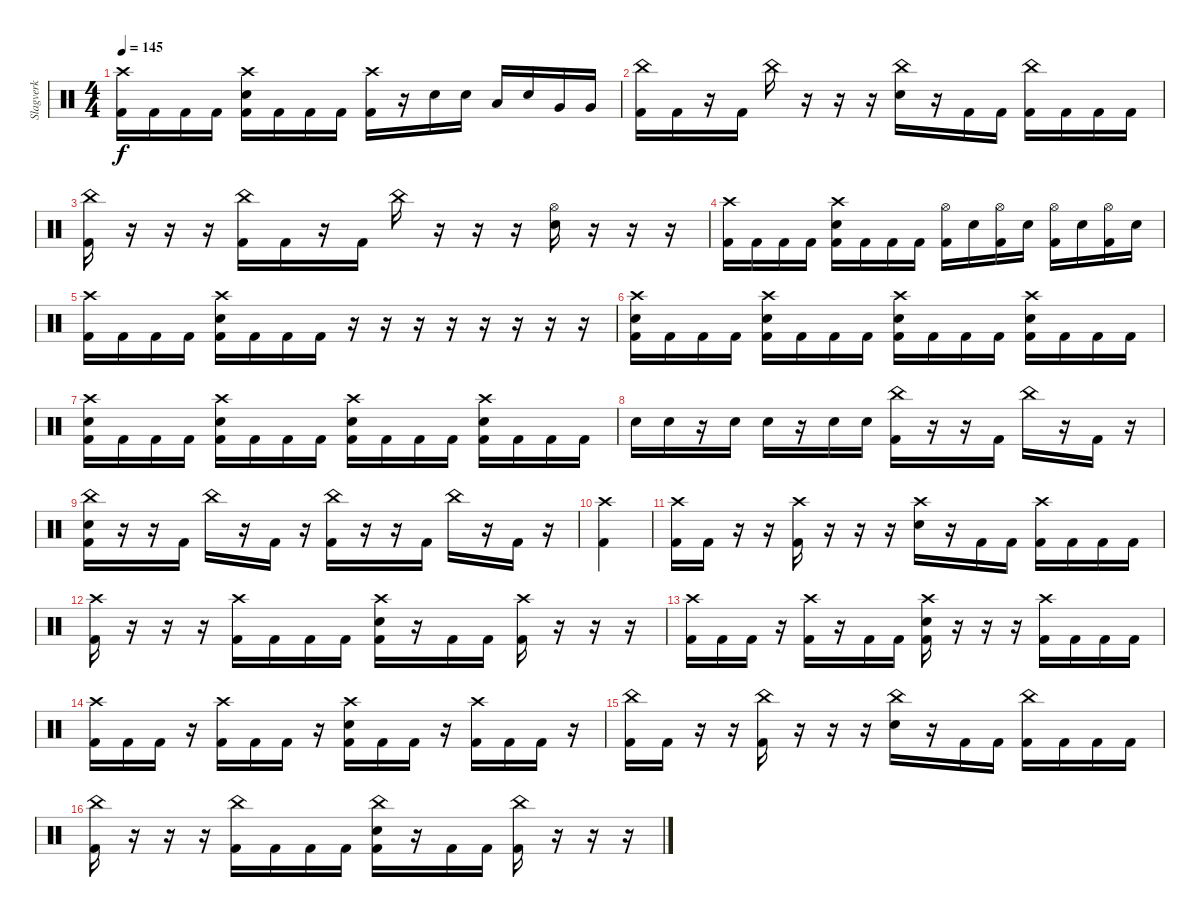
\track ("Slagverk" "Slagverk") {instrument percussion}
\staff {score}
\articulation defaults
\ts (4 4)
\tempo 145
\clef neutral
\ks c
("Crash high (hit)" "Kick (hit) 2").16{dy f} "Kick (hit) 2".16 "Kick (hit) 2".16 "Kick (hit) 2".16 ("Crash high (hit)" "Kick (hit) 2" "Electric Snare (hit)").16 "Kick (hit) 2".16 "Kick (hit) 2".16 "Kick (hit) 2".16 ("Crash high (hit)" "Kick (hit) 2").16 r.16 "Electric Snare (hit)".16 "Electric Snare (hit)".16 "Low Tom (hit)".16 "Electric Snare (hit)".16 "Very Low Tom (hit)".16 "Very Low Tom (hit)".16 |
("China (hit)" "Kick (hit) 2").16 "Kick (hit) 2".16 r.16 "Kick (hit) 2".16 "China (hit)".16 r.16 r.16 r.16 ("China (hit)" "Electric Snare (hit)").16 r.16 "Kick (hit) 2".16 "Kick (hit) 2".16 ("China (hit)" "Kick (hit) 2").16 "Kick (hit) 2".16 "Kick (hit) 2".16 "Kick (hit) 2".16 |
("China (hit)" "Kick (hit) 2").16 r.16 r.16 r.16 ("China (hit)" "Kick (hit) 2").16 "Kick (hit) 2".16 r.16 "Kick (hit) 2".16 "China (hit)".16 r.16 r.16 r.16 ("Hi-Hat (open)" "Electric Snare (hit)").16 r.16 r.16 r.16 |
("Kick (hit) 2" "Crash high (hit)").16 "Kick (hit) 2".16 "Kick (hit) 2".16 "Kick (hit) 2".16 ("Electric Snare (hit)" "Kick (hit) 2" "Crash high (hit)").16 "Kick (hit) 2".16 "Kick (hit) 2".16 "Kick (hit) 2".16 ("Kick (hit) 2" "Hi-Hat (open)").16 "Electric Snare (hit)".16 ("Kick (hit) 2" "Hi-Hat (open)").16 "Electric Snare (hit)".16 ("Kick (hit) 2" "Hi-Hat (open)").16 "Electric Snare (hit)".16 ("Kick (hit) 2" "Hi-Hat (open)").16 "Electric Snare (hit)".16 |
("Crash high (hit)" "Kick (hit) 2").16 "Kick (hit) 2".16 "Kick (hit) 2".16 "Kick (hit) 2".16 ("Crash high (hit)" "Electric Snare (hit)" "Kick (hit) 2").16 "Kick (hit) 2".16 "Kick (hit) 2".16 "Kick (hit) 2".16 r.16 r.16 r.16 r.16 r.16 r.16 r.16 r.16 |
("Crash high (hit)" "Electric Snare (hit)" "Kick (hit) 2").16 "Kick (hit) 2".16 "Kick (hit) 2".16 "Kick (hit) 2".16 ("Crash high (hit)" "Electric Snare (hit)" "Kick (hit) 2").16 "Kick (hit) 2".16 "Kick (hit) 2".16 "Kick (hit) 2".16 ("Crash high (hit)" "Electric Snare (hit)" "Kick (hit) 2").16 "Kick (hit) 2".16 "Kick (hit) 2".16 "Kick (hit) 2".16 ("Crash high (hit)" "Electric Snare (hit)" "Kick (hit) 2").16 "Kick (hit) 2".16 "Kick (hit) 2".16 "Kick (hit) 2".16 |
("Crash high (hit)" "Electric Snare (hit)" "Kick (hit) 2").16 "Kick (hit) 2".16 "Kick (hit) 2".16 "Kick (hit) 2".16 ("Crash high (hit)" "Electric Snare (hit)" "Kick (hit) 2").16 "Kick (hit) 2".16 "Kick (hit) 2".16 "Kick (hit) 2".16 ("Crash high (hit)" "Electric Snare (hit)" "Kick (hit) 2").16 "Kick (hit) 2".16 "Kick (hit) 2".16 "Kick (hit) 2".16 ("Crash high (hit)" "Electric Snare (hit)" "Kick (hit) 2").16 "Kick (hit) 2".16 "Kick (hit) 2".16 "Kick (hit) 2".16 |
"Electric Snare (hit)".16 "Electric Snare (hit)".16 r.16 "Electric Snare (hit)".16 "Electric Snare (hit)".16 r.16 "Electric Snare (hit)".16 "Electric Snare (hit)".16 ("China (hit)" "Kick (hit) 2").16 r.16 r.16 "Kick (hit) 2".16 "China (hit)".16 r.16 "Kick (hit) 2".16 r.16 |
("China (hit)" "Electric Snare (hit)" "Kick (hit) 2").16 r.16 r.16 "Kick (hit) 2".16 "China (hit)".16 r.16 "Kick (hit) 2".16 r.16 ("China (hit)" "Kick (hit) 2").16 r.16 r.16 "Kick (hit) 2".16 "China (hit)".16 r.16 "Kick (hit) 2".16 r.16 |
("Crash high (hit)" "Kick (hit) 2").4 |
("Crash high (hit)" "Kick (hit) 2").16 "Kick (hit) 2".16 r.16 r.16 ("Crash high (hit)" "Kick (hit) 2").16 r.16 r.16 r.16 ("Crash high (hit)" "Electric Snare (hit)").16 r.16 "Kick (hit) 2".16 "Kick (hit) 2".16 ("Crash high (hit)" "Kick (hit) 2").16 "Kick (hit) 2".16 "Kick (hit) 2".16 "Kick (hit) 2".16 |
("Crash high (hit)" "Kick (hit) 2").16 r.16 r.16 r.16 ("Crash high (hit)" "Kick (hit) 2").16 "Kick (hit) 2".16 "Kick (hit) 2".16 "Kick (hit) 2".16 ("Crash high (hit)" "Kick (hit) 2" "Electric Snare (hit)").16 r.16 "Kick (hit) 2".16 "Kick (hit) 2".16 ("Crash high (hit)" "Kick (hit) 2").16 r.16 r.16 r.16 |
("Crash high (hit)" "Kick (hit) 2").16 "Kick (hit) 2".16 "Kick (hit) 2".16 r.16 ("Crash high (hit)" "Kick (hit) 2").16 r.16 "Kick (hit) 2".16 "Kick (hit) 2".16 ("Crash high (hit)" "Kick (hit) 2" "Electric Snare (hit)").16 r.16 r.16 r.16 ("Crash high (hit)" "Kick (hit) 2").16 "Kick (hit) 2".16 "Kick (hit) 2".16 "Kick (hit) 2".16 |
("Crash high (hit)" "Kick (hit) 2").16 "Kick (hit) 2".16 "Kick (hit) 2".16 r.16 ("Crash high (hit)" "Kick (hit) 2").16 "Kick (hit) 2".16 "Kick (hit) 2".16 r.16 ("Crash high (hit)" "Kick (hit) 2" "Electric Snare (hit)").16 "Kick (hit) 2".16 "Kick (hit) 2".16 r.16 ("Crash high (hit)" "Kick (hit) 2").16 "Kick (hit) 2".16 "Kick (hit) 2".16 r.16 |
("China (hit)" "Kick (hit) 2").16 "Kick (hit) 2".16 r.16 r.16 ("China (hit)" "Kick (hit) 2").16 r.16 r.16 r.16 ("China (hit)" "Electric Snare (hit)").16 r.16 "Kick (hit) 2".16 "Kick (hit) 2".16 ("China (hit)" "Kick (hit) 2").16 "Kick (hit) 2".16 "Kick (hit) 2".16 "Kick (hit) 2".16 |
("China (hit)" "Kick (hit) 2").16 r.16 r.16 r.16 ("China (hit)" "Kick (hit) 2").16 "Kick (hit) 2".16 "Kick (hit) 2".16 "Kick (hit) 2".16 ("China (hit)" "Kick (hit) 2" "Electric Snare (hit)").16 r.16 "Kick (hit) 2".16 "Kick (hit) 2".16 ("China (hit)" "Kick (hit) 2").16 r.16 r.16 r.16
